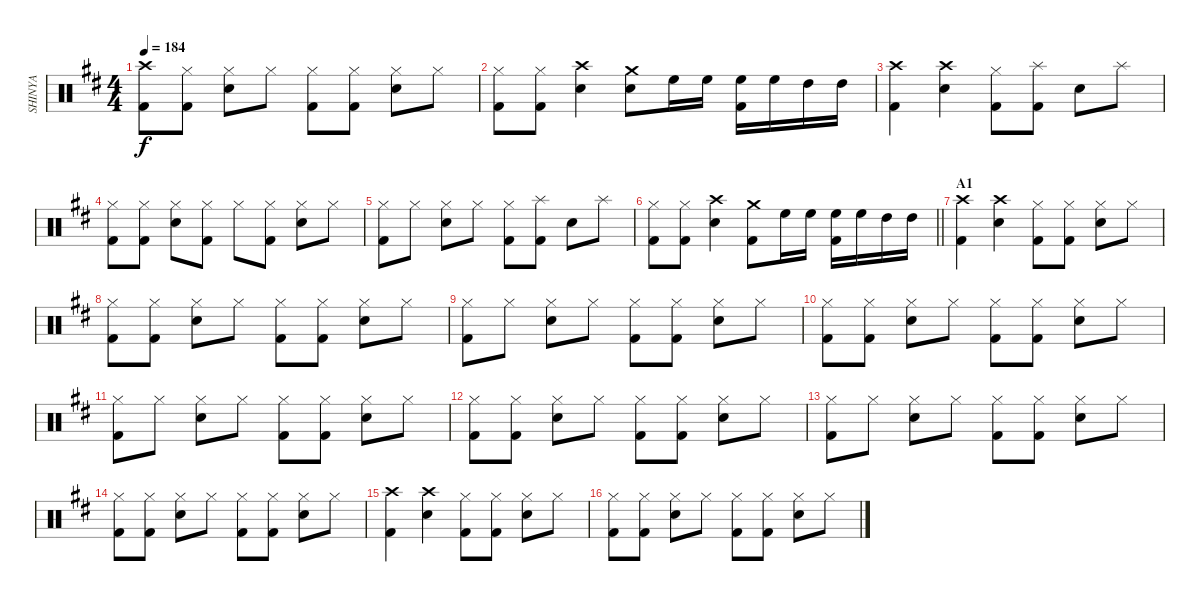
\track ("SHINYA" "SHINYA") {instrument percussion}
\staff {score}
\articulation defaults
\ts (4 4)
\tempo 184
\clef neutral
\ks bminor
("Crash high (hit)" "Kick (hit) 2").8{dy f} ("Hi-Hat (closed)" "Kick (hit) 2").8 ("Hi-Hat (closed)" "Snare (hit) 2").8 "Hi-Hat (closed)".8 ("Hi-Hat (closed)" "Kick (hit) 2").8 ("Hi-Hat (closed)" "Kick (hit) 2").8 ("Hi-Hat (closed)" "Snare (hit) 2").8 "Hi-Hat (closed)".8 |
("Hi-Hat (closed)" "Kick (hit) 2").8 ("Hi-Hat (closed)" "Kick (hit) 2").8 ("Crash high (hit)" "Snare (hit) 2").4 ("Crash medium (hit)" "Snare (hit) 2").8 "High Floor Tom (hit)".16 "High Floor Tom (hit)".16 ("High Floor Tom (hit)" "Kick (hit) 2").16 "High Floor Tom (hit)".16 "High Tom (hit)".16 "High Tom (hit)".16 |
("Crash high (hit)" "Kick (hit) 2").4 ("Crash high (hit)" "Snare (hit) 2").4 ("Hi-Hat (closed)" "Kick (hit) 2").8 ("Splash (hit)" "Kick (hit) 2").8 "Snare (hit) 2".8 "Splash (hit)".8 |
("Hi-Hat (closed)" "Kick (hit) 2").8 ("Hi-Hat (closed)" "Kick (hit) 2").8 ("Hi-Hat (closed)" "Snare (hit) 2").8 ("Hi-Hat (closed)" "Kick (hit) 2").8 "Hi-Hat (closed)".8 ("Hi-Hat (closed)" "Kick (hit) 2").8 ("Hi-Hat (closed)" "Snare (hit) 2").8 "Hi-Hat (closed)".8 |
("Hi-Hat (closed)" "Kick (hit) 2").8 "Hi-Hat (closed)".8 ("Hi-Hat (closed)" "Snare (hit) 2").8 "Hi-Hat (closed)".8 ("Hi-Hat (closed)" "Kick (hit) 2").8 ("Splash (hit)" "Kick (hit) 2").8 "Snare (hit) 2".8 "Splash (hit)".8 |
\barLineRight lightlight
("Hi-Hat (closed)" "Kick (hit) 2").8 ("Hi-Hat (closed)" "Kick (hit) 2").8 ("Crash high (hit)" "Snare (hit) 2").4 ("Crash medium (hit)" "Kick (hit) 2").8 "High Floor Tom (hit)".16 "High Floor Tom (hit)".16 ("High Floor Tom (hit)" "Kick (hit) 2").16 "High Floor Tom (hit)".16 "High Tom (hit)".16 "High Tom (hit)".16 |
\section ("" "A1")
("Crash high (hit)" "Kick (hit) 2").4 ("Crash high (hit)" "Snare (hit) 2").4 ("Hi-Hat (closed)" "Kick (hit) 2").8 ("Hi-Hat (closed)" "Kick (hit) 2").8 ("Hi-Hat (closed)" "Snare (hit) 2").8 "Hi-Hat (closed)".8 |
("Hi-Hat (closed)" "Kick (hit) 2").8 ("Hi-Hat (closed)" "Kick (hit) 2").8 ("Hi-Hat (closed)" "Snare (hit) 2").8 "Hi-Hat (closed)".8 ("Hi-Hat (closed)" "Kick (hit) 2").8 ("Hi-Hat (closed)" "Kick (hit) 2").8 ("Hi-Hat (closed)" "Snare (hit) 2").8 "Hi-Hat (closed)".8 |
("Hi-Hat (closed)" "Kick (hit) 2").8 "Hi-Hat (closed)".8 ("Hi-Hat (closed)" "Snare (hit) 2").8 "Hi-Hat (closed)".8 ("Hi-Hat (closed)" "Kick (hit) 2").8 ("Hi-Hat (closed)" "Kick (hit) 2").8 ("Hi-Hat (closed)" "Snare (hit) 2").8 "Hi-Hat (closed)".8 |
("Hi-Hat (closed)" "Kick (hit) 2").8 ("Hi-Hat (closed)" "Kick (hit) 2").8 ("Hi-Hat (closed)" "Snare (hit) 2").8 "Hi-Hat (closed)".8 ("Hi-Hat (closed)" "Kick (hit) 2").8 ("Hi-Hat (closed)" "Kick (hit) 2").8 ("Hi-Hat (closed)" "Snare (hit) 2").8 "Hi-Hat (closed)".8 |
("Hi-Hat (closed)" "Kick (hit) 2").8 "Hi-Hat (closed)".8 ("Hi-Hat (closed)" "Snare (hit) 2").8 "Hi-Hat (closed)".8 ("Hi-Hat (closed)" "Kick (hit) 2").8 ("Hi-Hat (closed)" "Kick (hit) 2").8 ("Hi-Hat (closed)" "Snare (hit) 2").8 "Hi-Hat (closed)".8 |
("Hi-Hat (closed)" "Kick (hit) 2").8 ("Hi-Hat (closed)" "Kick (hit) 2").8 ("Hi-Hat (closed)" "Snare (hit) 2").8 "Hi-Hat (closed)".8 ("Hi-Hat (closed)" "Kick (hit) 2").8 ("Hi-Hat (closed)" "Kick (hit) 2").8 ("Hi-Hat (closed)" "Snare (hit) 2").8 "Hi-Hat (closed)".8 |
("Hi-Hat (closed)" "Kick (hit) 2").8 "Hi-Hat (closed)".8 ("Hi-Hat (closed)" "Snare (hit) 2").8 "Hi-Hat (closed)".8 ("Hi-Hat (closed)" "Kick (hit) 2").8 ("Hi-Hat (closed)" "Kick (hit) 2").8 ("Hi-Hat (closed)" "Snare (hit) 2").8 "Hi-Hat (closed)".8 |
("Hi-Hat (closed)" "Kick (hit) 2").8 ("Hi-Hat (closed)" "Kick (hit) 2").8 ("Hi-Hat (closed)" "Snare (hit) 2").8 "Hi-Hat (closed)".8 ("Hi-Hat (closed)" "Kick (hit) 2").8 ("Hi-Hat (closed)" "Kick (hit) 2").8 ("Hi-Hat (closed)" "Snare (hit) 2").8 "Hi-Hat (closed)".8 |
("Crash high (hit)" "Kick (hit) 2").4 ("Crash high (hit)" "Snare (hit) 2").4 ("Hi-Hat (closed)" "Kick (hit) 2").8 ("Hi-Hat (closed)" "Kick (hit) 2").8 ("Hi-Hat (closed)" "Snare (hit) 2").8 "Hi-Hat (closed)".8 |
("Hi-Hat (closed)" "Kick (hit) 2").8 ("Hi-Hat (closed)" "Kick (hit) 2").8 ("Hi-Hat (closed)" "Snare (hit) 2").8 "Hi-Hat (closed)".8 ("Hi-Hat (closed)" "Kick (hit) 2").8 ("Hi-Hat (closed)" "Kick (hit) 2").8 ("Hi-Hat (closed)" "Snare (hit) 2").8 "Hi-Hat (closed)".8
